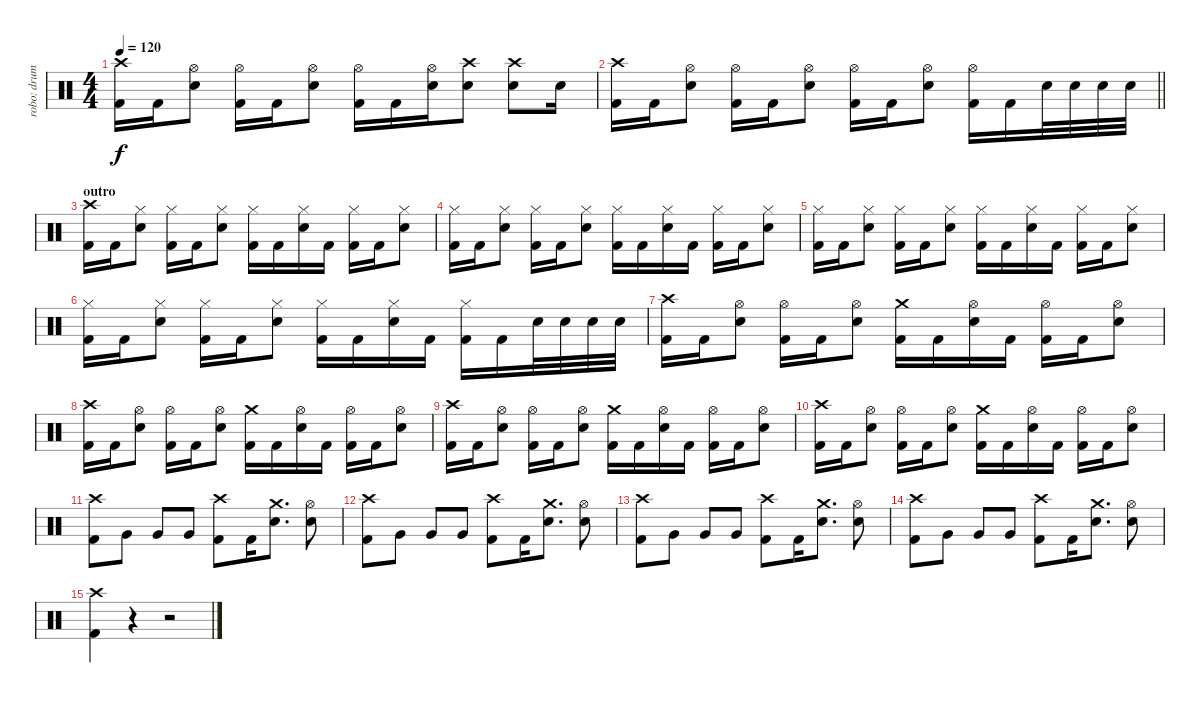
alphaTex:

\track ("robo: drums" "robo: drum") {instrument percussion}
\staff {score}
\articulation defaults
\ts (4 4)
\tempo 120
\clef neutral
\ks c
("Crash high (hit)" "Kick (hit) 2").16{dy f} "Kick (hit) 2".16 ("Hi-Hat (open)" "Snare (hit) 2").8 ("Hi-Hat (open)" "Kick (hit) 2").16 "Kick (hit) 2".16 ("Hi-Hat (open)" "Snare (hit) 2").8 ("Hi-Hat (open)" "Kick (hit) 2").16 "Kick (hit) 2".16 ("Hi-Hat (open)" "Snare (hit) 2").16 ("Crash high (hit)" "Snare (hit) 2").8 ("Crash high (hit)" "Snare (hit) 2").8 "Snare (hit) 2".16 |
\barLineRight lightlight
("Crash high (hit)" "Kick (hit) 2").16 "Kick (hit) 2".16 ("Hi-Hat (open)" "Snare (hit) 2").8 ("Hi-Hat (open)" "Kick (hit) 2").16 "Kick (hit) 2".16 ("Hi-Hat (open)" "Snare (hit) 2").8 ("Hi-Hat (open)" "Kick (hit) 2").16 "Kick (hit) 2".16 ("Hi-Hat (open)" "Snare (hit) 2").8 ("Hi-Hat (open)" "Kick (hit) 2").16 "Kick (hit) 2".16 "Snare (hit) 2".32 "Snare (hit) 2".32 "Snare (hit) 2".32 "Snare (hit) 2".32 |
\section ("" "outro")
("Crash high (hit)" "Kick (hit) 2").16 "Kick (hit) 2".16 ("Hi-Hat (closed)" "Snare (hit) 2").8 ("Hi-Hat (closed)" "Kick (hit) 2").16 "Kick (hit) 2".16 ("Hi-Hat (closed)" "Snare (hit) 2").8 ("Hi-Hat (closed)" "Kick (hit) 2").16 "Kick (hit) 2".16 ("Hi-Hat (closed)" "Snare (hit) 2").16 "Kick (hit) 2".16 ("Hi-Hat (closed)" "Kick (hit) 2").16 "Kick (hit) 2".16 ("Hi-Hat (closed)" "Snare (hit) 2").8 |
("Hi-Hat (closed)" "Kick (hit) 2").16 "Kick (hit) 2".16 ("Hi-Hat (closed)" "Snare (hit) 2").8 ("Hi-Hat (closed)" "Kick (hit) 2").16 "Kick (hit) 2".16 ("Hi-Hat (closed)" "Snare (hit) 2").8 ("Hi-Hat (closed)" "Kick (hit) 2").16 "Kick (hit) 2".16 ("Hi-Hat (closed)" "Snare (hit) 2").16 "Kick (hit) 2".16 ("Hi-Hat (closed)" "Kick (hit) 2").16 "Kick (hit) 2".16 ("Hi-Hat (closed)" "Snare (hit) 2").8 |
("Hi-Hat (closed)" "Kick (hit) 2").16 "Kick (hit) 2".16 ("Hi-Hat (closed)" "Snare (hit) 2").8 ("Hi-Hat (closed)" "Kick (hit) 2").16 "Kick (hit) 2".16 ("Hi-Hat (closed)" "Snare (hit) 2").8 ("Hi-Hat (closed)" "Kick (hit) 2").16 "Kick (hit) 2".16 ("Hi-Hat (closed)" "Snare (hit) 2").16 "Kick (hit) 2".16 ("Hi-Hat (closed)" "Kick (hit) 2").16 "Kick (hit) 2".16 ("Hi-Hat (closed)" "Snare (hit) 2").8 |
("Hi-Hat (closed)" "Kick (hit) 2").16 "Kick (hit) 2".16 ("Hi-Hat (closed)" "Snare (hit) 2").8 ("Hi-Hat (closed)" "Kick (hit) 2").16 "Kick (hit) 2".16 ("Hi-Hat (closed)" "Snare (hit) 2").8 ("Hi-Hat (closed)" "Kick (hit) 2").16 "Kick (hit) 2".16 ("Hi-Hat (closed)" "Snare (hit) 2").16 "Kick (hit) 2".16 ("Hi-Hat (closed)" "Kick (hit) 2").16 "Kick (hit) 2".16 "Snare (hit) 2".32 "Snare (hit) 2".32 "Snare (hit) 2".32 "Snare (hit) 2".32 |
("Crash high (hit)" "Kick (hit) 2").16 "Kick (hit) 2".16 ("Hi-Hat (open)" "Snare (hit) 2").8 ("Hi-Hat (open)" "Kick (hit) 2").16 "Kick (hit) 2".16 ("Hi-Hat (open)" "Snare (hit) 2").8 ("Crash medium (hit)" "Kick (hit) 2").16 "Kick (hit) 2".16 ("Hi-Hat (open)" "Snare (hit) 2").16 "Kick (hit) 2".16 ("Hi-Hat (open)" "Kick (hit) 2").16 "Kick (hit) 2".16 ("Hi-Hat (open)" "Snare (hit) 2").8 |
("Crash high (hit)" "Kick (hit) 2").16 "Kick (hit) 2".16 ("Hi-Hat (open)" "Snare (hit) 2").8 ("Hi-Hat (open)" "Kick (hit) 2").16 "Kick (hit) 2".16 ("Hi-Hat (open)" "Snare (hit) 2").8 ("Crash medium (hit)" "Kick (hit) 2").16 "Kick (hit) 2".16 ("Hi-Hat (open)" "Snare (hit) 2").16 "Kick (hit) 2".16 ("Hi-Hat (open)" "Kick (hit) 2").16 "Kick (hit) 2".16 ("Hi-Hat (open)" "Snare (hit) 2").8 |
("Crash high (hit)" "Kick (hit) 2").16 "Kick (hit) 2".16 ("Hi-Hat (open)" "Snare (hit) 2").8 ("Hi-Hat (open)" "Kick (hit) 2").16 "Kick (hit) 2".16 ("Hi-Hat (open)" "Snare (hit) 2").8 ("Crash medium (hit)" "Kick (hit) 2").16 "Kick (hit) 2".16 ("Hi-Hat (open)" "Snare (hit) 2").16 "Kick (hit) 2".16 ("Hi-Hat (open)" "Kick (hit) 2").16 "Kick (hit) 2".16 ("Hi-Hat (open)" "Snare (hit) 2").8 |
("Crash high (hit)" "Kick (hit) 2").16 "Kick (hit) 2".16 ("Hi-Hat (open)" "Snare (hit) 2").8 ("Hi-Hat (open)" "Kick (hit) 2").16 "Kick (hit) 2".16 ("Hi-Hat (open)" "Snare (hit) 2").8 ("Crash medium (hit)" "Kick (hit) 2").16 "Kick (hit) 2".16 ("Hi-Hat (open)" "Snare (hit) 2").16 "Kick (hit) 2".16 ("Hi-Hat (open)" "Kick (hit) 2").16 "Kick (hit) 2".16 ("Hi-Hat (open)" "Snare (hit) 2").8 |
("Crash high (hit)" "Kick (hit) 2").8 "Very Low Tom (hit)".8 "Very Low Tom (hit)".8 "Very Low Tom (hit)".8 ("Crash high (hit)" "Kick (hit) 2").8 "Kick (hit) 2".16 ("Crash medium (hit)" "Snare (hit) 2").8{d} ("Hi-Hat (open)" "Snare (hit) 2").8 |
("Crash high (hit)" "Kick (hit) 2").8 "Very Low Tom (hit)".8 "Very Low Tom (hit)".8 "Very Low Tom (hit)".8 ("Crash high (hit)" "Kick (hit) 2").8 "Kick (hit) 2".16 ("Crash medium (hit)" "Snare (hit) 2").8{d} ("Hi-Hat (open)" "Snare (hit) 2").8 |
("Crash high (hit)" "Kick (hit) 2").8 "Very Low Tom (hit)".8 "Very Low Tom (hit)".8 "Very Low Tom (hit)".8 ("Crash high (hit)" "Kick (hit) 2").8 "Kick (hit) 2".16 ("Crash medium (hit)" "Snare (hit) 2").8{d} ("Hi-Hat (open)" "Snare (hit) 2").8 |
("Crash high (hit)" "Kick (hit) 2").8 "Very Low Tom (hit)".8 "Very Low Tom (hit)".8 "Very Low Tom (hit)".8 ("Crash high (hit)" "Kick (hit) 2").8 "Kick (hit) 2".16 ("Crash medium (hit)" "Snare (hit) 2").8{d} ("Hi-Hat (open)" "Snare (hit) 2").8 |
("Crash high (hit)" "Kick (hit) 2").4 r.4 r.2
